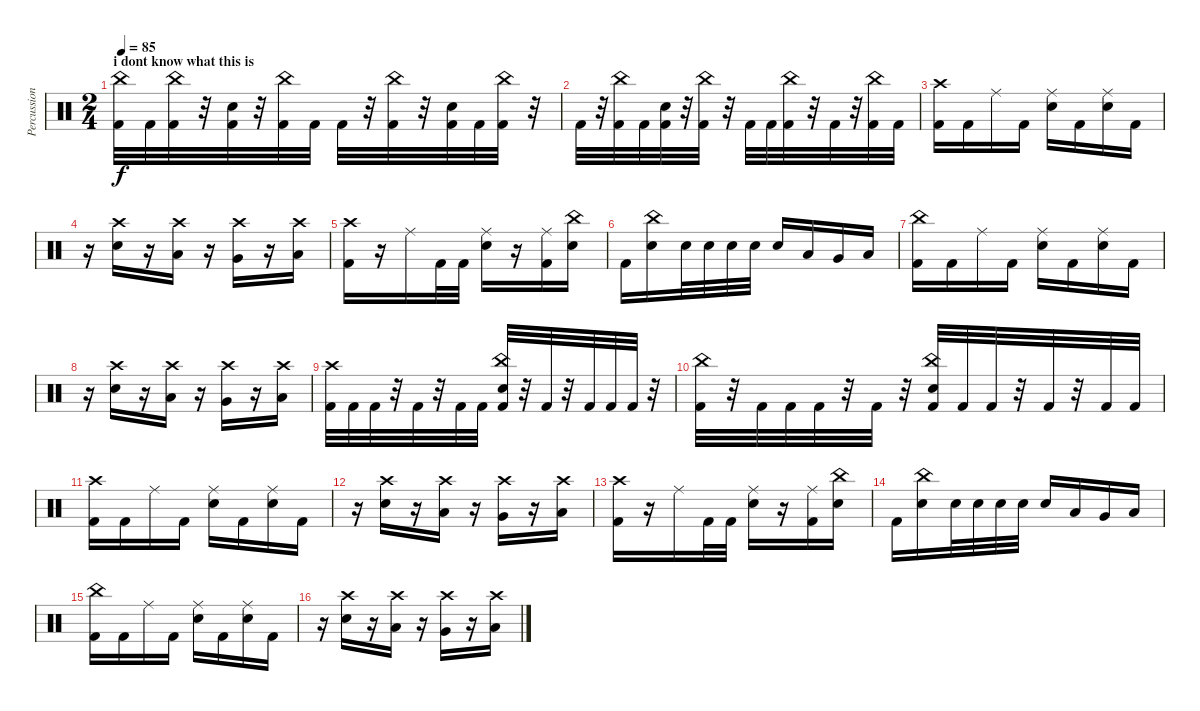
\track ("Percussion" "Percussion") {instrument percussion}
\staff {score}
\articulation defaults
\ts (2 4)
\section ("" "i dont know what this is")
\tempo 85
\clef neutral
\ks c
("Kick (hit) 2" "China (hit)").32{dy f} "Kick (hit) 2".32 ("Kick (hit) 2" "China (hit)").32 r.32 ("Kick (hit) 2" "Snare (hit) 2").32 r.32 ("Kick (hit) 2" "China (hit)").32 "Kick (hit) 2".32 "Kick (hit) 2".32 r.32 ("Kick (hit) 2" "China (hit)").32 r.32 ("Kick (hit) 2" "Snare (hit) 2").32 "Kick (hit) 2".32 ("Kick (hit) 2" "China (hit)").32 r.32 |
"Kick (hit) 2".32 r.32 ("Kick (hit) 2" "China (hit)").32 "Kick (hit) 2".32 ("Kick (hit) 2" "Snare (hit) 2").32 r.32 ("Kick (hit) 2" "China (hit)").32 r.32 "Kick (hit) 2".32 "Kick (hit) 2".32 ("Kick (hit) 2" "China (hit)").32 r.32 "Kick (hit) 2".32 r.32 ("Kick (hit) 2" "China (hit)").32 "Kick (hit) 2".32 |
("Kick (hit) 2" "Crash high (hit)").16 "Kick (hit) 2".16 "Ride (middle)".16 "Kick (hit) 2".16 ("Snare (hit) 2" "Ride (middle)").16 "Kick (hit) 2".16 ("Snare (hit) 2" "Ride (middle)").16 "Kick (hit) 2".16 |
r.16 ("Crash high (hit)" "Snare (hit) 2").16 r.16 ("Crash high (hit)" "Low Tom (hit)").16 r.16 ("Crash high (hit)" "Very Low Tom (hit)").16 r.16 ("Crash high (hit)" "Low Floor Tom (hit)").16 |
("Kick (hit) 2" "Crash high (hit)").16 r.16 "Ride (middle)".16 "Kick (hit) 2".32 "Kick (hit) 2".32 ("Snare (hit) 2" "Ride (middle)").16 r.16 ("Ride (middle)" "Kick (hit) 2").16 ("China (hit)" "Snare (hit) 2").16 |
"Kick (hit) 2".16 ("China (hit)" "Snare (hit) 2").16 "Snare (hit) 2".32 "Snare (hit) 2".32 "Snare (hit) 2".32 "Snare (hit) 2".32 "Snare (hit) 2".16 "Low Tom (hit)".16 "Very Low Tom (hit)".16 "Low Floor Tom (hit)".16 |
("Kick (hit) 2" "China (hit)").16 "Kick (hit) 2".16 "Ride (middle)".16 "Kick (hit) 2".16 ("Snare (hit) 2" "Ride (middle)").16 "Kick (hit) 2".16 ("Snare (hit) 2" "Ride (middle)").16 "Kick (hit) 2".16 |
r.16 ("Crash high (hit)" "Snare (hit) 2").16 r.16 ("Crash high (hit)" "Low Tom (hit)").16 r.16 ("Crash high (hit)" "Very Low Tom (hit)").16 r.16 ("Crash high (hit)" "Low Floor Tom (hit)").16 |
("Kick (hit) 2" "Crash high (hit)").32 "Kick (hit) 2".32 "Kick (hit) 2".32 r.32 "Kick (hit) 2".32 r.32 "Kick (hit) 2".32 "Kick (hit) 2".32 ("Kick (hit) 2" "Snare (hit) 2" "China (hit)").32 r.32 "Kick (hit) 2".32 r.32 "Kick (hit) 2".32 "Kick (hit) 2".32 "Kick (hit) 2".32 r.32 |
("Kick (hit) 2" "China (hit)").32 r.32 "Kick (hit) 2".32 "Kick (hit) 2".32 "Kick (hit) 2".32 r.32 "Kick (hit) 2".32 r.32 ("Kick (hit) 2" "Snare (hit) 2" "China (hit)").32 "Kick (hit) 2".32 "Kick (hit) 2".32 r.32 "Kick (hit) 2".32 r.32 "Kick (hit) 2".32 "Kick (hit) 2".32 |
("Kick (hit) 2" "Crash high (hit)").16 "Kick (hit) 2".16 "Ride (middle)".16 "Kick (hit) 2".16 ("Snare (hit) 2" "Ride (middle)").16 "Kick (hit) 2".16 ("Snare (hit) 2" "Ride (middle)").16 "Kick (hit) 2".16 |
r.16 ("Crash high (hit)" "Snare (hit) 2").16 r.16 ("Crash high (hit)" "Low Tom (hit)").16 r.16 ("Crash high (hit)" "Very Low Tom (hit)").16 r.16 ("Crash high (hit)" "Low Floor Tom (hit)").16 |
("Kick (hit) 2" "Crash high (hit)").16 r.16 "Ride (middle)".16 "Kick (hit) 2".32 "Kick (hit) 2".32 ("Snare (hit) 2" "Ride (middle)").16 r.16 ("Ride (middle)" "Kick (hit) 2").16 ("China (hit)" "Snare (hit) 2").16 |
"Kick (hit) 2".16 ("China (hit)" "Snare (hit) 2").16 "Snare (hit) 2".32 "Snare (hit) 2".32 "Snare (hit) 2".32 "Snare (hit) 2".32 "Snare (hit) 2".16 "Low Tom (hit)".16 "Very Low Tom (hit)".16 "Low Floor Tom (hit)".16 |
("Kick (hit) 2" "China (hit)").16 "Kick (hit) 2".16 "Ride (middle)".16 "Kick (hit) 2".16 ("Snare (hit) 2" "Ride (middle)").16 "Kick (hit) 2".16 ("Snare (hit) 2" "Ride (middle)").16 "Kick (hit) 2".16 |
r.16 ("Crash high (hit)" "Snare (hit) 2").16 r.16 ("Crash high (hit)" "Low Tom (hit)").16 r.16 ("Crash high (hit)" "Very Low Tom (hit)").16 r.16 ("Crash high (hit)" "Low Floor Tom (hit)").16
